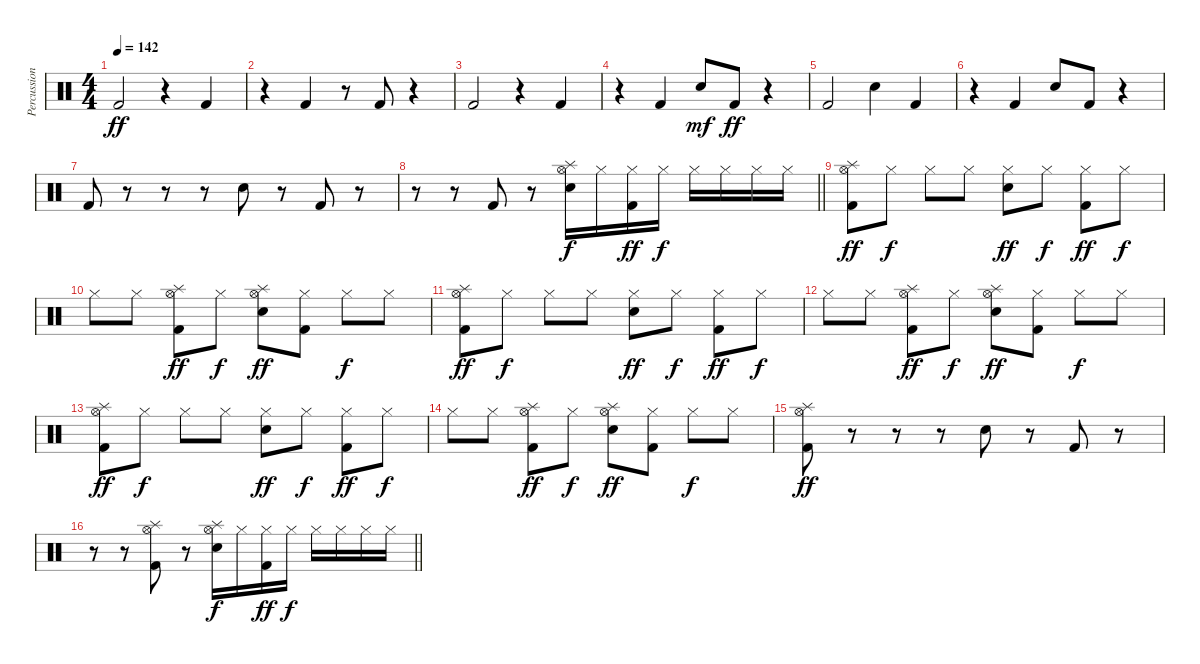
\track ("Percussion" "Percussion") {instrument percussion}
\staff {score}
\articulation defaults
\ts (4 4)
\tempo 142
\clef neutral
\ks c "Kick (hit) 2".2{dy ff}
r.4 "Kick (hit) 2".4 |
r.4 "Kick (hit) 2".4 r.8 "Kick (hit) 2".8 r.4 |
"Kick (hit) 2".2 r.4 "Kick (hit) 2".4 |
r.4 "Kick (hit) 2".4 "Snare (hit) 2".8{dy mf} "Kick (hit) 2".8{dy ff} r.4 |
"Kick (hit) 2".2 "Snare (hit) 2".4 "Kick (hit) 2".4 |
r.4 "Kick (hit) 2".4 "Snare (hit) 2".8 "Kick (hit) 2".8 r.4 |
"Kick (hit) 2".8 r.8 r.8 r.8 "Snare (hit) 2".8 r.8 "Kick (hit) 2".8 r.8 |
\barLineRight lightlight
r.8 r.8 "Kick (hit) 2".8 r.8 ("Hi-Hat (open)" "Splash (hit)" "Snare (hit) 2").16{dy f} "Hi-Hat (closed)".16 ("Hi-Hat (closed)" "Kick (hit) 2").16{dy ff} "Hi-Hat (closed)".16{dy f} "Hi-Hat (closed)".16 "Hi-Hat (closed)".16 "Hi-Hat (closed)".16 "Hi-Hat (closed)".16 |
("Hi-Hat (open)" "Splash (hit)" "Kick (hit) 2").8{dy ff} "Hi-Hat (closed)".8{dy f} "Hi-Hat (closed)".8 "Hi-Hat (closed)".8 ("Hi-Hat (closed)" "Snare (hit) 2").8{dy ff} "Hi-Hat (closed)".8{dy f} ("Hi-Hat (closed)" "Kick (hit) 2").8{dy ff} "Hi-Hat (closed)".8{dy f} |
"Hi-Hat (closed)".8 "Hi-Hat (closed)".8 ("Hi-Hat (open)" "Splash (hit)" "Kick (hit) 2").8{dy ff} "Hi-Hat (closed)".8{dy f} ("Hi-Hat (open)" "Splash (hit)" "Snare (hit) 2").8{dy ff} ("Hi-Hat (closed)" "Kick (hit) 2").8 "Hi-Hat (closed)".8{dy f} "Hi-Hat (closed)".8 |
("Hi-Hat (open)" "Splash (hit)" "Kick (hit) 2").8{dy ff} "Hi-Hat (closed)".8{dy f} "Hi-Hat (closed)".8 "Hi-Hat (closed)".8 ("Hi-Hat (closed)" "Snare (hit) 2").8{dy ff} "Hi-Hat (closed)".8{dy f} ("Hi-Hat (closed)" "Kick (hit) 2").8{dy ff} "Hi-Hat (closed)".8{dy f} |
"Hi-Hat (closed)".8 "Hi-Hat (closed)".8 ("Hi-Hat (open)" "Splash (hit)" "Kick (hit) 2").8{dy ff} "Hi-Hat (closed)".8{dy f} ("Hi-Hat (open)" "Splash (hit)" "Snare (hit) 2").8{dy ff} ("Hi-Hat (closed)" "Kick (hit) 2").8 "Hi-Hat (closed)".8{dy f} "Hi-Hat (closed)".8 |
("Hi-Hat (open)" "Splash (hit)" "Kick (hit) 2").8{dy ff} "Hi-Hat (closed)".8{dy f} "Hi-Hat (closed)".8 "Hi-Hat (closed)".8 ("Hi-Hat (closed)" "Snare (hit) 2").8{dy ff} "Hi-Hat (closed)".8{dy f} ("Hi-Hat (closed)" "Kick (hit) 2").8{dy ff} "Hi-Hat (closed)".8{dy f} |
"Hi-Hat (closed)".8 "Hi-Hat (closed)".8 ("Hi-Hat (open)" "Splash (hit)" "Kick (hit) 2").8{dy ff} "Hi-Hat (closed)".8{dy f} ("Hi-Hat (open)" "Splash (hit)" "Snare (hit) 2").8{dy ff} ("Hi-Hat (closed)" "Kick (hit) 2").8 "Hi-Hat (closed)".8{dy f} "Hi-Hat (closed)".8 |
("Hi-Hat (open)" "Splash (hit)" "Kick (hit) 2").8{dy ff} r.8 r.8 r.8 "Snare (hit) 2".8 r.8 "Kick (hit) 2".8 r.8 |
\barLineRight lightlight
r.8 r.8 ("Hi-Hat (open)" "Splash (hit)" "Kick (hit) 2").8 r.8 ("Hi-Hat (open)" "Splash (hit)" "Snare (hit) 2").16{dy f} "Hi-Hat (closed)".16 ("Hi-Hat (closed)" "Kick (hit) 2").16{dy ff} "Hi-Hat (closed)".16{dy f} "Hi-Hat (closed)".16 "Hi-Hat (closed)".16 "Hi-Hat (closed)".16 "Hi-Hat (closed)".16
